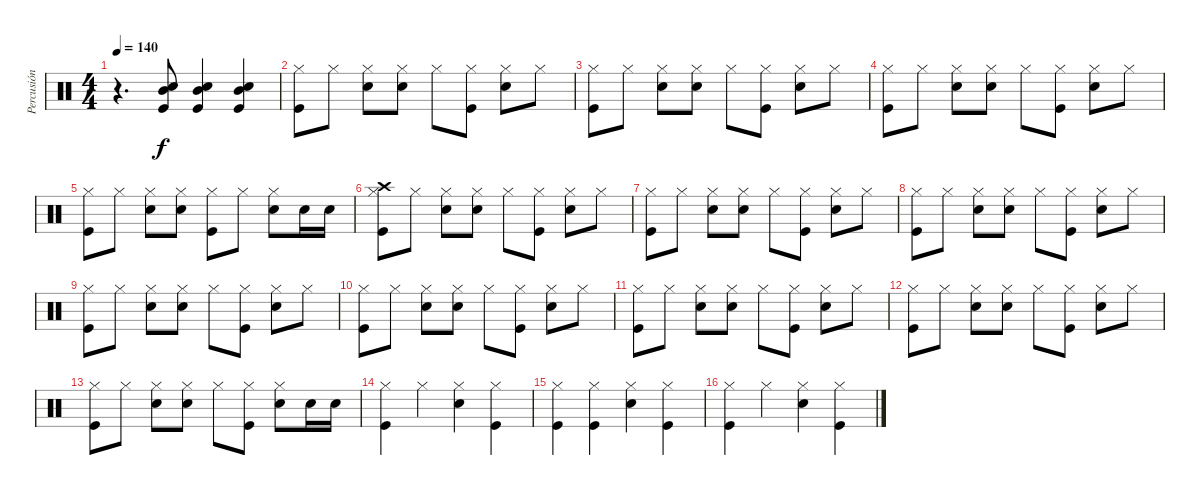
\track ("Percusión" "Percusión") {instrument percussion}
\staff {score}
\articulation defaults
\ts (4 4)
\tempo 140
\clef neutral
\ks c
r.4{d dy f} ("Kick (hit)" "Mid Tom (hit)" "Snare (hit) 2").8 ("Kick (hit)" "Mid Tom (hit)" "Snare (hit) 2").4 ("Kick (hit)" "Mid Tom (hit)" "Snare (hit) 2").4 |
("Hi-Hat (closed)" "Kick (hit)").8 "Hi-Hat (closed)".8 ("Snare (hit) 2" "Hi-Hat (closed)").8 ("Hi-Hat (closed)" "Snare (hit) 2").8 "Hi-Hat (closed)".8 ("Kick (hit)" "Hi-Hat (closed)").8 ("Snare (hit) 2" "Hi-Hat (closed)").8 "Hi-Hat (closed)".8 |
("Hi-Hat (closed)" "Kick (hit)").8 "Hi-Hat (closed)".8 ("Snare (hit) 2" "Hi-Hat (closed)").8 ("Hi-Hat (closed)" "Snare (hit) 2").8 "Hi-Hat (closed)".8 ("Kick (hit)" "Hi-Hat (closed)").8 ("Snare (hit) 2" "Hi-Hat (closed)").8 "Hi-Hat (closed)".8 |
("Hi-Hat (closed)" "Kick (hit)").8 "Hi-Hat (closed)".8 ("Snare (hit) 2" "Hi-Hat (closed)").8 ("Hi-Hat (closed)" "Snare (hit) 2").8 "Hi-Hat (closed)".8 ("Kick (hit)" "Hi-Hat (closed)").8 ("Snare (hit) 2" "Hi-Hat (closed)").8 "Hi-Hat (closed)".8 |
("Hi-Hat (closed)" "Kick (hit)").8 "Hi-Hat (closed)".8 ("Snare (hit) 2" "Hi-Hat (closed)").8 ("Hi-Hat (closed)" "Snare (hit) 2").8 ("Kick (hit)" "Hi-Hat (closed)").8 "Hi-Hat (closed)".8 ("Snare (hit) 2" "Hi-Hat (closed)").8 "Snare (hit) 2".16 "Snare (hit) 2".16 |
("Hi-Hat (closed)" "Crash high (hit)" "Kick (hit)").8 "Hi-Hat (closed)".8 ("Snare (hit) 2" "Hi-Hat (closed)").8 ("Hi-Hat (closed)" "Snare (hit) 2").8 "Hi-Hat (closed)".8 ("Kick (hit)" "Hi-Hat (closed)").8 ("Snare (hit) 2" "Hi-Hat (closed)").8 "Hi-Hat (closed)".8 |
("Hi-Hat (closed)" "Kick (hit)").8 "Hi-Hat (closed)".8 ("Snare (hit) 2" "Hi-Hat (closed)").8 ("Hi-Hat (closed)" "Snare (hit) 2").8 "Hi-Hat (closed)".8 ("Kick (hit)" "Hi-Hat (closed)").8 ("Snare (hit) 2" "Hi-Hat (closed)").8 "Hi-Hat (closed)".8 |
("Hi-Hat (closed)" "Kick (hit)").8 "Hi-Hat (closed)".8 ("Snare (hit) 2" "Hi-Hat (closed)").8 ("Hi-Hat (closed)" "Snare (hit) 2").8 "Hi-Hat (closed)".8 ("Kick (hit)" "Hi-Hat (closed)").8 ("Snare (hit) 2" "Hi-Hat (closed)").8 "Hi-Hat (closed)".8 |
("Hi-Hat (closed)" "Kick (hit)").8 "Hi-Hat (closed)".8 ("Snare (hit) 2" "Hi-Hat (closed)").8 ("Hi-Hat (closed)" "Snare (hit) 2").8 "Hi-Hat (closed)".8 ("Kick (hit)" "Hi-Hat (closed)").8 ("Snare (hit) 2" "Hi-Hat (closed)").8 "Hi-Hat (closed)".8 |
("Hi-Hat (closed)" "Kick (hit)").8 "Hi-Hat (closed)".8 ("Snare (hit) 2" "Hi-Hat (closed)").8 ("Hi-Hat (closed)" "Snare (hit) 2").8 "Hi-Hat (closed)".8 ("Kick (hit)" "Hi-Hat (closed)").8 ("Snare (hit) 2" "Hi-Hat (closed)").8 "Hi-Hat (closed)".8 |
("Hi-Hat (closed)" "Kick (hit)").8 "Hi-Hat (closed)".8 ("Snare (hit) 2" "Hi-Hat (closed)").8 ("Hi-Hat (closed)" "Snare (hit) 2").8 "Hi-Hat (closed)".8 ("Kick (hit)" "Hi-Hat (closed)").8 ("Snare (hit) 2" "Hi-Hat (closed)").8 "Hi-Hat (closed)".8 |
("Hi-Hat (closed)" "Kick (hit)").8 "Hi-Hat (closed)".8 ("Snare (hit) 2" "Hi-Hat (closed)").8 ("Hi-Hat (closed)" "Snare (hit) 2").8 "Hi-Hat (closed)".8 ("Kick (hit)" "Hi-Hat (closed)").8 ("Snare (hit) 2" "Hi-Hat (closed)").8 "Hi-Hat (closed)".8 |
("Hi-Hat (closed)" "Kick (hit)").8 "Hi-Hat (closed)".8 ("Snare (hit) 2" "Hi-Hat (closed)").8 ("Hi-Hat (closed)" "Snare (hit) 2").8 "Hi-Hat (closed)".8 ("Kick (hit)" "Hi-Hat (closed)").8 ("Snare (hit) 2" "Hi-Hat (closed)").8 "Snare (hit) 2".16 "Snare (hit) 2".16 |
("Kick (hit)" "Hi-Hat (closed)").4 "Hi-Hat (closed)".4 ("Snare (hit) 2" "Hi-Hat (closed)").4 ("Kick (hit)" "Hi-Hat (closed)").4 |
("Kick (hit)" "Hi-Hat (closed)").4 ("Kick (hit)" "Hi-Hat (closed)").4 ("Snare (hit) 2" "Hi-Hat (closed)").4 ("Kick (hit)" "Hi-Hat (closed)").4 |
("Kick (hit)" "Hi-Hat (closed)").4 "Hi-Hat (closed)".4 ("Snare (hit) 2" "Hi-Hat (closed)").4 ("Kick (hit)" "Hi-Hat (closed)").4
